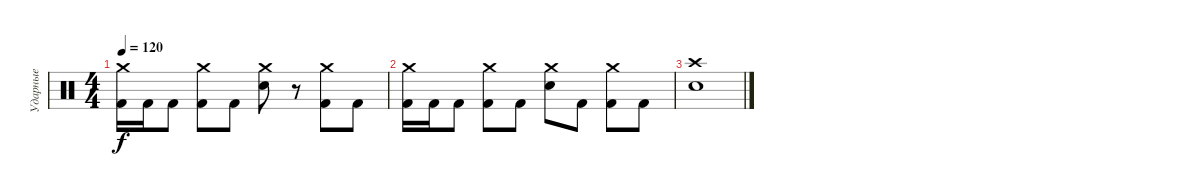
\track ("Ударные" "Ударные") {instrument percussion}
\staff {score}
\articulation defaults
\ts (4 4)
\tempo 120
\clef neutral
\ks c
("Crash medium (hit)" "Kick (hit) 2").16{dy f} "Kick (hit) 2".16 "Kick (hit) 2".8 ("Crash medium (hit)" "Kick (hit) 2").8 "Kick (hit) 2".8 ("Crash medium (hit)" "Snare (hit) 2").8 r.8 ("Crash medium (hit)" "Kick (hit) 2").8 "Kick (hit) 2".8 |
("Crash medium (hit)" "Kick (hit) 2").16 "Kick (hit) 2".16 "Kick (hit) 2".8 ("Crash medium (hit)" "Kick (hit) 2").8 "Kick (hit) 2".8 ("Crash medium (hit)" "Snare (hit) 2").8 "Kick (hit) 2".8 ("Crash medium (hit)" "Kick (hit) 2").8 "Kick (hit) 2".8 |
("Crash high (hit)" "Snare (hit) 2").1
